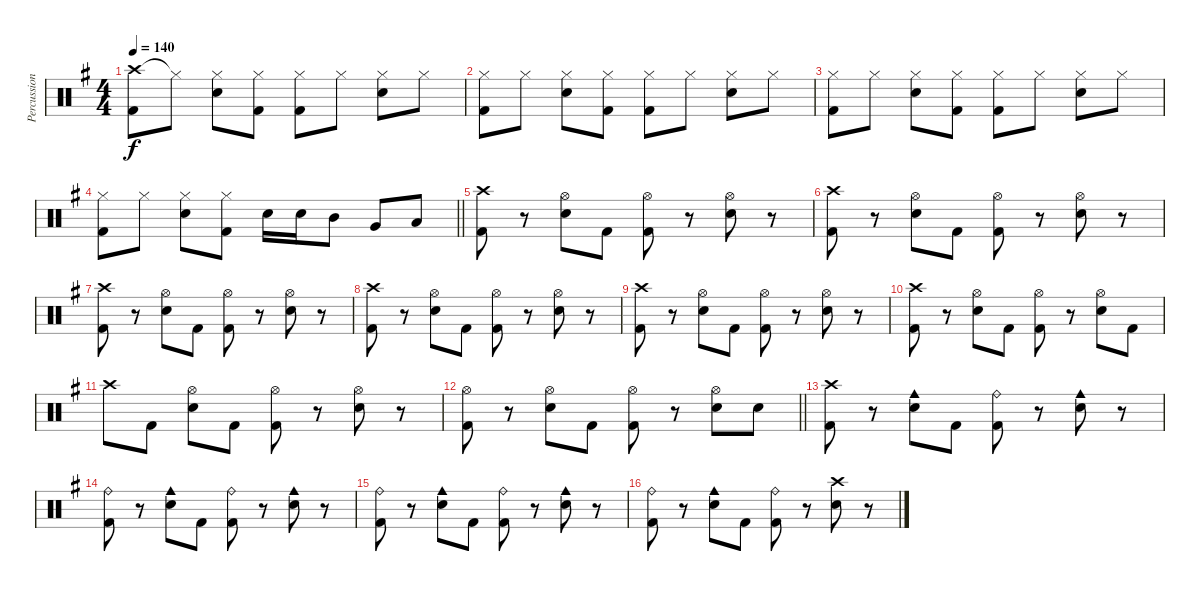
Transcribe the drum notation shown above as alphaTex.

\track ("Percussion" "Percussion") {instrument percussion}
\staff {score}
\articulation defaults
\ts (4 4)
\tempo 140
\clef neutral
\ks g
("Crash high (hit)" "Kick (hit) 2").8{dy f} "Hi-Hat (closed)"{t}.8 ("Hi-Hat (closed)" "Snare (hit) 2").8 ("Hi-Hat (closed)" "Kick (hit) 2").8 ("Hi-Hat (closed)" "Kick (hit) 2").8 "Hi-Hat (closed)".8 ("Hi-Hat (closed)" "Snare (hit) 2").8 "Hi-Hat (closed)".8 |
("Hi-Hat (closed)" "Kick (hit) 2").8 "Hi-Hat (closed)".8 ("Hi-Hat (closed)" "Snare (hit) 2").8 ("Hi-Hat (closed)" "Kick (hit) 2").8 ("Hi-Hat (closed)" "Kick (hit) 2").8 "Hi-Hat (closed)".8 ("Hi-Hat (closed)" "Snare (hit) 2").8 "Hi-Hat (closed)".8 |
("Hi-Hat (closed)" "Kick (hit) 2").8 "Hi-Hat (closed)".8 ("Hi-Hat (closed)" "Snare (hit) 2").8 ("Hi-Hat (closed)" "Kick (hit) 2").8 ("Hi-Hat (closed)" "Kick (hit) 2").8 "Hi-Hat (closed)".8 ("Hi-Hat (closed)" "Snare (hit) 2").8 "Hi-Hat (closed)".8 |
\barLineRight lightlight
("Hi-Hat (closed)" "Kick (hit) 2").8 "Hi-Hat (closed)".8 ("Hi-Hat (closed)" "Snare (hit) 2").8 ("Hi-Hat (closed)" "Kick (hit) 2").8 "Snare (hit) 2".16 "Snare (hit) 2".16 "Mid Tom (hit)".8 "Very Low Tom (hit)".8 "Low Floor Tom (hit)".8 |
("Crash high (hit)" "Kick (hit) 2").8 r.8 ("Hi-Hat (open)" "Snare (hit) 2").8 "Kick (hit) 2".8 ("Hi-Hat (open)" "Kick (hit) 2").8 r.8 ("Hi-Hat (open)" "Snare (hit) 2").8 r.8 |
("Crash high (hit)" "Kick (hit) 2").8 r.8 ("Hi-Hat (open)" "Snare (hit) 2").8 "Kick (hit) 2".8 ("Hi-Hat (open)" "Kick (hit) 2").8 r.8 ("Hi-Hat (open)" "Snare (hit) 2").8 r.8 |
("Crash high (hit)" "Kick (hit) 2").8 r.8 ("Hi-Hat (open)" "Snare (hit) 2").8 "Kick (hit) 2".8 ("Hi-Hat (open)" "Kick (hit) 2").8 r.8 ("Hi-Hat (open)" "Snare (hit) 2").8 r.8 |
("Crash high (hit)" "Kick (hit) 2").8 r.8 ("Hi-Hat (open)" "Snare (hit) 2").8 "Kick (hit) 2".8 ("Hi-Hat (open)" "Kick (hit) 2").8 r.8 ("Hi-Hat (open)" "Snare (hit) 2").8 r.8 |
("Crash high (hit)" "Kick (hit) 2").8 r.8 ("Hi-Hat (open)" "Snare (hit) 2").8 "Kick (hit) 2".8 ("Hi-Hat (open)" "Kick (hit) 2").8 r.8 ("Hi-Hat (open)" "Snare (hit) 2").8 r.8 |
("Crash high (hit)" "Kick (hit) 2").8 r.8 ("Hi-Hat (open)" "Snare (hit) 2").8 "Kick (hit) 2".8 ("Hi-Hat (open)" "Kick (hit) 2").8 r.8 ("Hi-Hat (open)" "Snare (hit) 2").8 "Kick (hit) 2".8 |
"Crash high (hit)".8 "Kick (hit) 2".8 ("Hi-Hat (open)" "Snare (hit) 2").8 "Kick (hit) 2".8 ("Hi-Hat (open)" "Kick (hit) 2").8 r.8 ("Hi-Hat (open)" "Snare (hit) 2").8 r.8 |
\barLineRight lightlight
("Hi-Hat (open)" "Kick (hit) 2").8 r.8 ("Hi-Hat (open)" "Snare (hit) 2").8 "Kick (hit) 2".8 ("Hi-Hat (open)" "Kick (hit) 2").8 r.8 ("Hi-Hat (open)" "Snare (hit) 2").8 "Snare (hit) 2".8 |
("Crash high (hit)" "Kick (hit) 2").8 r.8 ("Cowbell medium (hit)" "Snare (hit) 2").8 "Kick (hit) 2".8 ("Ride (bell)" "Kick (hit) 2").8 r.8 ("Cowbell medium (hit)" "Snare (hit) 2").8 r.8 |
("Ride (bell)" "Kick (hit) 2").8 r.8 ("Cowbell medium (hit)" "Snare (hit) 2").8 "Kick (hit) 2".8 ("Ride (bell)" "Kick (hit) 2").8 r.8 ("Cowbell medium (hit)" "Snare (hit) 2").8 r.8 |
("Ride (bell)" "Kick (hit) 2").8 r.8 ("Cowbell medium (hit)" "Snare (hit) 2").8 "Kick (hit) 2".8 ("Ride (bell)" "Kick (hit) 2").8 r.8 ("Cowbell medium (hit)" "Snare (hit) 2").8 r.8 |
("Ride (bell)" "Kick (hit) 2").8 r.8 ("Cowbell medium (hit)" "Snare (hit) 2").8 "Kick (hit) 2".8 ("Ride (bell)" "Kick (hit) 2").8 r.8 ("Crash high (hit)" "Snare (hit) 2").8 r.8
